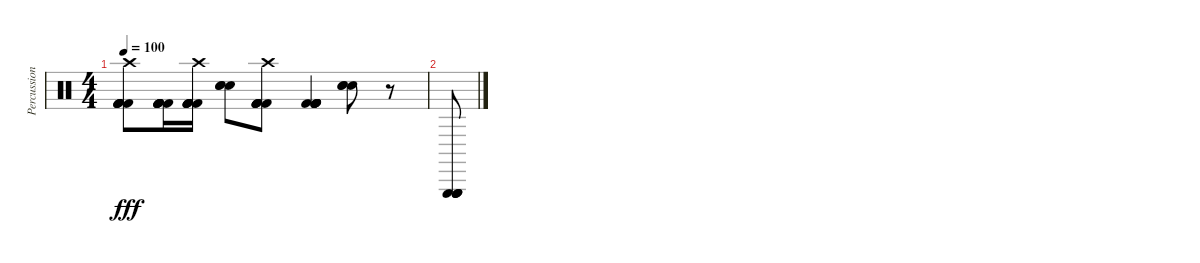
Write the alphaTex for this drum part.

\track ("Percussion" "Percussion") {instrument percussion}
\staff {score}
\articulation defaults
\ts (4 4)
\tempo 100
\clef neutral
\ks c
("Crash high (hit)" "Kick (hit) 2" "Kick (hit) 2" "Kick (hit) 2" "Kick (hit) 2" "Kick (hit) 2").8{dy fff} ("Kick (hit) 2" "Kick (hit) 2" "Kick (hit) 2" "Kick (hit) 2" "Kick (hit) 2" "Kick (hit) 2").16 ("Crash high (hit)" "Kick (hit) 2" "Kick (hit) 2" "Kick (hit) 2" "Kick (hit) 2" "Kick (hit) 2").16 ("Snare (hit) 2" "Snare (hit) 2" "Snare (hit) 2").8 ("Crash high (hit)" "Kick (hit) 2" "Kick (hit) 2" "Kick (hit) 2" "Kick (hit) 2" "Kick (hit) 2").8 ("Kick (hit) 2" "Kick (hit) 2" "Kick (hit) 2" "Kick (hit) 2" "Kick (hit) 2" "Kick (hit) 2").4 ("Snare (hit) 2" "Snare (hit) 2" "Snare (hit) 2").8 r.8 |
("Triangle (hit)" "Triangle (hit)" "Triangle (hit)" "Triangle (hit)").8{volume 16}
